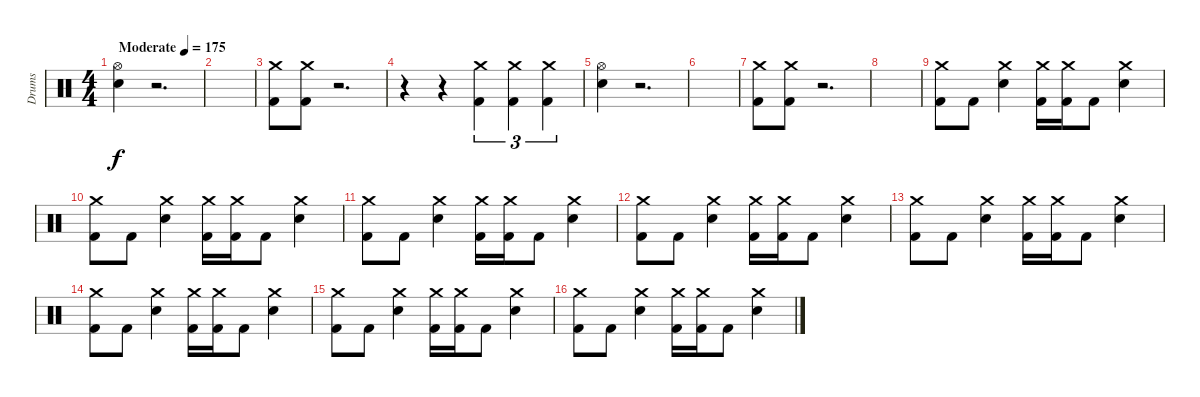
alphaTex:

\track ("Drums" "Drums") {instrument percussion}
\staff {score}
\articulation defaults
\ts (4 4)
\tempo (175 "Moderate")
\clef neutral
\ks c
("Snare (hit) 2" "Hi-Hat (open)").4{dy f} r.2{d} |
|
("Kick (hit) 2" "Crash medium (hit)").8 ("Kick (hit) 2" "Crash medium (hit)").8 r.2{d} |
r.4 r.4 ("Kick (hit) 2" "Crash medium (hit)").4{tu (3 2)} ("Kick (hit) 2" "Crash medium (hit)").4{tu (3 2)} ("Kick (hit) 2" "Crash medium (hit)").4{tu (3 2)} |
("Snare (hit) 2" "Hi-Hat (open)").4 r.2{d} |
|
("Kick (hit) 2" "Crash medium (hit)").8 ("Kick (hit) 2" "Crash medium (hit)").8 r.2{d} |
|
("Kick (hit) 2" "Crash medium (hit)").8 "Kick (hit) 2".8 ("Snare (hit) 2" "Crash medium (hit)").4 ("Kick (hit) 2" "Crash medium (hit)").16 ("Kick (hit) 2" "Crash medium (hit)").16 "Kick (hit) 2".8 ("Snare (hit) 2" "Crash medium (hit)").4 |
("Kick (hit) 2" "Crash medium (hit)").8 "Kick (hit) 2".8 ("Snare (hit) 2" "Crash medium (hit)").4 ("Kick (hit) 2" "Crash medium (hit)").16 ("Kick (hit) 2" "Crash medium (hit)").16 "Kick (hit) 2".8 ("Snare (hit) 2" "Crash medium (hit)").4 |
("Kick (hit) 2" "Crash medium (hit)").8 "Kick (hit) 2".8 ("Snare (hit) 2" "Crash medium (hit)").4 ("Kick (hit) 2" "Crash medium (hit)").16 ("Kick (hit) 2" "Crash medium (hit)").16 "Kick (hit) 2".8 ("Snare (hit) 2" "Crash medium (hit)").4 |
("Kick (hit) 2" "Crash medium (hit)").8 "Kick (hit) 2".8 ("Snare (hit) 2" "Crash medium (hit)").4 ("Kick (hit) 2" "Crash medium (hit)").16 ("Kick (hit) 2" "Crash medium (hit)").16 "Kick (hit) 2".8 ("Snare (hit) 2" "Crash medium (hit)").4 |
("Kick (hit) 2" "Crash medium (hit)").8 "Kick (hit) 2".8 ("Snare (hit) 2" "Crash medium (hit)").4 ("Kick (hit) 2" "Crash medium (hit)").16 ("Kick (hit) 2" "Crash medium (hit)").16 "Kick (hit) 2".8 ("Snare (hit) 2" "Crash medium (hit)").4 |
("Kick (hit) 2" "Crash medium (hit)").8 "Kick (hit) 2".8 ("Snare (hit) 2" "Crash medium (hit)").4 ("Kick (hit) 2" "Crash medium (hit)").16 ("Kick (hit) 2" "Crash medium (hit)").16 "Kick (hit) 2".8 ("Snare (hit) 2" "Crash medium (hit)").4 |
("Kick (hit) 2" "Crash medium (hit)").8 "Kick (hit) 2".8 ("Snare (hit) 2" "Crash medium (hit)").4 ("Kick (hit) 2" "Crash medium (hit)").16 ("Kick (hit) 2" "Crash medium (hit)").16 "Kick (hit) 2".8 ("Snare (hit) 2" "Crash medium (hit)").4 |
("Kick (hit) 2" "Crash medium (hit)").8 "Kick (hit) 2".8 ("Snare (hit) 2" "Crash medium (hit)").4 ("Kick (hit) 2" "Crash medium (hit)").16 ("Kick (hit) 2" "Crash medium (hit)").16 "Kick (hit) 2".8 ("Snare (hit) 2" "Crash medium (hit)").4
